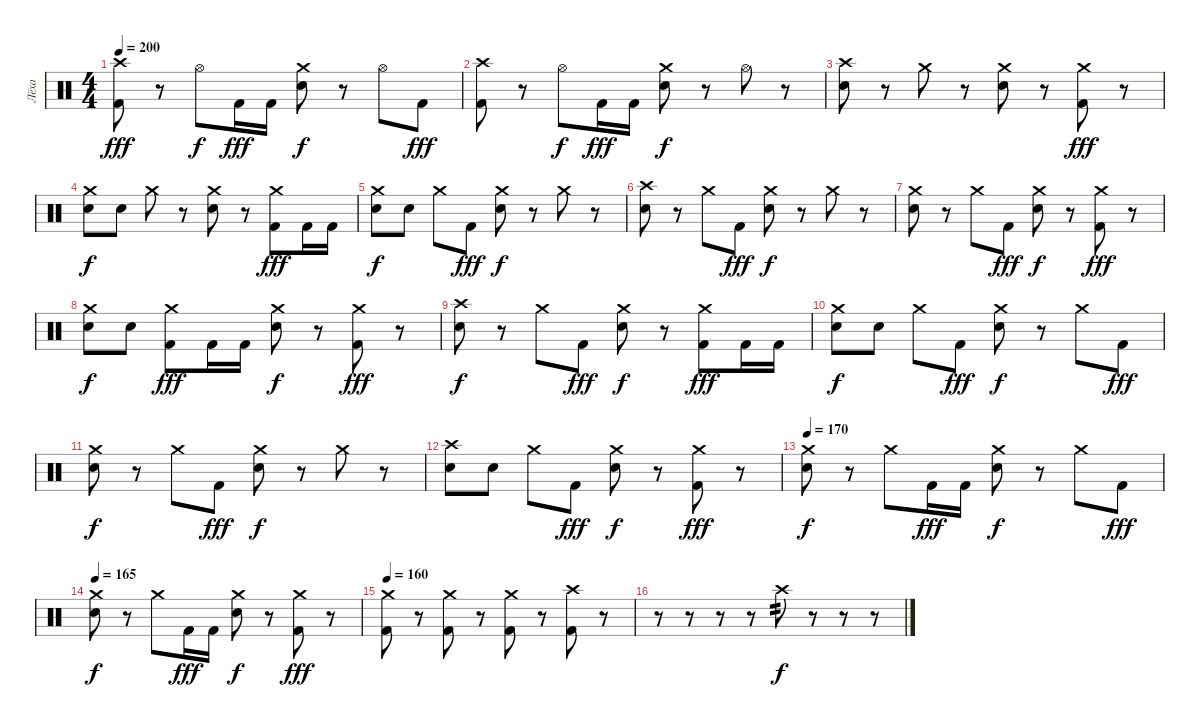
\track ("Лёха" "Лёха") {instrument percussion}
\staff {score}
\articulation defaults
\ts (4 4)
\tempo 200
\clef neutral
\ks c
("Crash high (hit)" "Kick (hit) 2").8{dy fff} r.8 "Hi-Hat (open)".8{dy f} "Kick (hit) 2".16{dy fff} "Kick (hit) 2".16 ("Crash medium (hit)" "Electric Snare (hit)").8{dy f} r.8 "Hi-Hat (open)".8 "Kick (hit) 2".8{dy fff} |
("Crash high (hit)" "Kick (hit) 2").8 r.8 "Hi-Hat (open)".8{dy f} "Kick (hit) 2".16{dy fff} "Kick (hit) 2".16 ("Crash medium (hit)" "Electric Snare (hit)").8{dy f} r.8 "Hi-Hat (open)".8 r.8 |
("Crash high (hit)" "Electric Snare (hit)").8 r.8 "Crash medium (hit)".8 r.8 ("Crash medium (hit)" "Electric Snare (hit)").8 r.8 ("Crash medium (hit)" "Kick (hit) 2").8{dy fff} r.8 |
("Crash medium (hit)" "Electric Snare (hit)").8{dy f} "Electric Snare (hit)".8 "Crash medium (hit)".8 r.8 ("Crash medium (hit)" "Electric Snare (hit)").8 r.8 ("Crash medium (hit)" "Kick (hit) 2").8{dy fff} "Kick (hit) 2".16 "Kick (hit) 2".16 |
("Crash medium (hit)" "Electric Snare (hit)").8{dy f} "Electric Snare (hit)".8 "Crash medium (hit)".8 "Kick (hit) 2".8{dy fff} ("Crash medium (hit)" "Electric Snare (hit)").8{dy f} r.8 "Crash medium (hit)".8 r.8 |
("Crash high (hit)" "Electric Snare (hit)").8 r.8 "Crash medium (hit)".8 "Kick (hit) 2".8{dy fff} ("Crash medium (hit)" "Electric Snare (hit)").8{dy f} r.8 "Crash medium (hit)".8 r.8 |
("Crash medium (hit)" "Electric Snare (hit)").8 r.8 "Crash medium (hit)".8 "Kick (hit) 2".8{dy fff} ("Crash medium (hit)" "Electric Snare (hit)").8{dy f} r.8 ("Crash medium (hit)" "Kick (hit) 2").8{dy fff} r.8 |
("Crash medium (hit)" "Electric Snare (hit)").8{dy f} "Electric Snare (hit)".8 ("Crash medium (hit)" "Kick (hit) 2").8{dy fff} "Kick (hit) 2".16 "Kick (hit) 2".16 ("Crash medium (hit)" "Electric Snare (hit)").8{dy f} r.8 ("Crash medium (hit)" "Kick (hit) 2").8{dy fff} r.8 |
("Crash high (hit)" "Electric Snare (hit)").8{dy f} r.8 "Crash medium (hit)".8 "Kick (hit) 2".8{dy fff} ("Crash medium (hit)" "Electric Snare (hit)").8{dy f} r.8 ("Crash medium (hit)" "Kick (hit) 2").8{dy fff} "Kick (hit) 2".16 "Kick (hit) 2".16 |
("Crash medium (hit)" "Electric Snare (hit)").8{dy f} "Electric Snare (hit)".8 "Crash medium (hit)".8 "Kick (hit) 2".8{dy fff} ("Crash medium (hit)" "Electric Snare (hit)").8{dy f} r.8 "Crash medium (hit)".8 "Kick (hit) 2".8{dy fff} |
("Crash medium (hit)" "Electric Snare (hit)").8{dy f} r.8 "Crash medium (hit)".8 "Kick (hit) 2".8{dy fff} ("Crash medium (hit)" "Electric Snare (hit)").8{dy f} r.8 "Crash medium (hit)".8 r.8 |
("Crash high (hit)" "Electric Snare (hit)").8 "Electric Snare (hit)".8 "Crash medium (hit)".8 "Kick (hit) 2".8{dy fff} ("Crash medium (hit)" "Electric Snare (hit)").8{dy f} r.8 ("Crash medium (hit)" "Kick (hit) 2").8{dy fff} r.8 |
\tempo 170
("Crash medium (hit)" "Electric Snare (hit)").8{dy f} r.8 "Crash medium (hit)".8 "Kick (hit) 2".16{dy fff} "Kick (hit) 2".16 ("Crash medium (hit)" "Electric Snare (hit)").8{dy f} r.8 "Crash medium (hit)".8 "Kick (hit) 2".8{dy fff} |
\tempo 165
("Crash medium (hit)" "Electric Snare (hit)").8{dy f} r.8 "Crash medium (hit)".8 "Kick (hit) 2".16{dy fff} "Kick (hit) 2".16 ("Crash medium (hit)" "Electric Snare (hit)").8{dy f} r.8 ("Crash medium (hit)" "Kick (hit) 2").8{dy fff} r.8 |
\tempo 160
("Crash medium (hit)" "Kick (hit) 2").8 r.8 ("Crash medium (hit)" "Kick (hit) 2").8 r.8 ("Crash medium (hit)" "Kick (hit) 2").8 r.8 ("Crash high (hit)" "Kick (hit) 2").8 r.8 |
r.8 r.8 r.8 r.8{volume 8} "Crash high (hit)".8{tp 2 dy f volume 12} r.8 r.8 r.8
